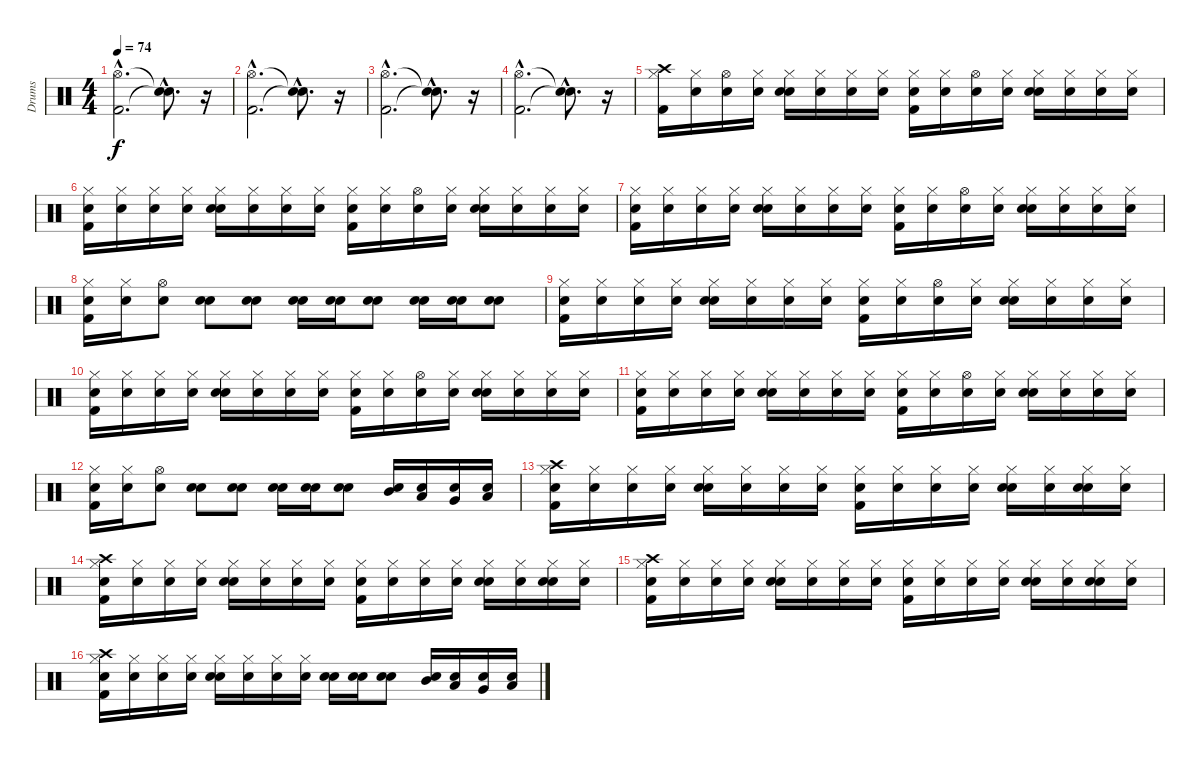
\track ("Drums" "Drums") {instrument percussion}
\staff {score}
\articulation defaults
\ts (4 4)
\tempo 74
\clef neutral
\ks c
("Kick (hit) 2"{hac} "Hi-Hat (open)"{hac}).2{d dy f} ("Snare (hit)"{hac t} "Snare (hit)"{hac t}).8{d} r.16 |
("Kick (hit) 2"{hac} "Hi-Hat (open)"{hac}).2{d} ("Snare (hit)"{hac t} "Snare (hit)"{hac t}).8{d} r.16 |
("Kick (hit) 2"{hac} "Hi-Hat (open)"{hac}).2{d} ("Snare (hit)"{hac t} "Snare (hit)"{hac t}).8{d} r.16 |
("Kick (hit) 2"{hac} "Hi-Hat (open)"{hac}).2{d} ("Snare (hit)"{hac t} "Snare (hit)"{hac t}).8{d} r.16 |
("Kick (hit) 2" "Hi-Hat (closed)" "Crash high (hit)").16 ("Snare (hit)" "Hi-Hat (closed)").16 ("Snare (hit)" "Hi-Hat (open)").16 ("Snare (hit)" "Hi-Hat (closed)").16 ("Snare (hit)" "Snare (hit) 2" "Hi-Hat (closed)").16 ("Snare (hit)" "Hi-Hat (closed)").16 ("Snare (hit)" "Hi-Hat (closed)").16 ("Snare (hit)" "Hi-Hat (closed)").16 ("Snare (hit)" "Kick (hit) 2" "Hi-Hat (closed)").16 ("Snare (hit)" "Hi-Hat (closed)").16 ("Snare (hit)" "Hi-Hat (open)").16 ("Snare (hit)" "Hi-Hat (closed)").16 ("Snare (hit)" "Snare (hit) 2" "Hi-Hat (closed)").16 ("Snare (hit)" "Hi-Hat (closed)").16 ("Snare (hit)" "Hi-Hat (closed)").16 ("Snare (hit)" "Hi-Hat (closed)").16 |
("Snare (hit)" "Kick (hit) 2" "Hi-Hat (closed)").16 ("Snare (hit)" "Hi-Hat (closed)").16 ("Snare (hit)" "Hi-Hat (closed)").16 ("Snare (hit)" "Hi-Hat (closed)").16 ("Snare (hit)" "Snare (hit) 2" "Hi-Hat (closed)").16 ("Snare (hit)" "Hi-Hat (closed)").16 ("Snare (hit)" "Hi-Hat (closed)").16 ("Snare (hit)" "Hi-Hat (closed)").16 ("Snare (hit)" "Kick (hit) 2" "Hi-Hat (closed)").16 ("Snare (hit)" "Hi-Hat (closed)").16 ("Snare (hit)" "Hi-Hat (open)").16 ("Snare (hit)" "Hi-Hat (closed)").16 ("Snare (hit)" "Snare (hit) 2" "Hi-Hat (closed)").16 ("Snare (hit)" "Hi-Hat (closed)").16 ("Snare (hit)" "Hi-Hat (closed)").16 ("Snare (hit)" "Hi-Hat (closed)").16 |
("Snare (hit)" "Kick (hit) 2" "Hi-Hat (closed)").16 ("Snare (hit)" "Hi-Hat (closed)").16 ("Snare (hit)" "Hi-Hat (closed)").16 ("Snare (hit)" "Hi-Hat (closed)").16 ("Snare (hit)" "Snare (hit) 2" "Hi-Hat (closed)").16 ("Snare (hit)" "Hi-Hat (closed)").16 ("Snare (hit)" "Hi-Hat (closed)").16 ("Snare (hit)" "Hi-Hat (closed)").16 ("Snare (hit)" "Kick (hit) 2" "Hi-Hat (closed)").16 ("Snare (hit)" "Hi-Hat (closed)").16 ("Snare (hit)" "Hi-Hat (open)").16 ("Snare (hit)" "Hi-Hat (closed)").16 ("Snare (hit)" "Snare (hit) 2" "Hi-Hat (closed)").16 ("Snare (hit)" "Hi-Hat (closed)").16 ("Snare (hit)" "Hi-Hat (closed)").16 ("Snare (hit)" "Hi-Hat (closed)").16 |
("Snare (hit)" "Kick (hit) 2" "Hi-Hat (closed)").16 ("Snare (hit)" "Hi-Hat (closed)").16 ("Snare (hit)" "Hi-Hat (open)").8 ("Snare (hit)" "Snare (hit) 2").8 ("Snare (hit)" "Snare (hit) 2").8 ("Snare (hit)" "Snare (hit) 2").16 ("Snare (hit)" "Snare (hit) 2").16 ("Snare (hit)" "Snare (hit) 2").8 ("Snare (hit)" "Snare (hit) 2").16 ("Snare (hit)" "Snare (hit) 2").16 ("Snare (hit)" "Snare (hit) 2").8 |
("Snare (hit)" "Kick (hit) 2" "Hi-Hat (closed)").16 ("Snare (hit)" "Hi-Hat (closed)").16 ("Snare (hit)" "Hi-Hat (closed)").16 ("Snare (hit)" "Hi-Hat (closed)").16 ("Snare (hit)" "Snare (hit) 2" "Hi-Hat (closed)").16 ("Snare (hit)" "Hi-Hat (closed)").16 ("Snare (hit)" "Hi-Hat (closed)").16 ("Snare (hit)" "Hi-Hat (closed)").16 ("Snare (hit)" "Kick (hit) 2" "Hi-Hat (closed)").16 ("Snare (hit)" "Hi-Hat (closed)").16 ("Snare (hit)" "Hi-Hat (open)").16 ("Snare (hit)" "Hi-Hat (closed)").16 ("Snare (hit)" "Snare (hit) 2" "Hi-Hat (closed)").16 ("Snare (hit)" "Hi-Hat (closed)").16 ("Snare (hit)" "Hi-Hat (closed)").16 ("Snare (hit)" "Hi-Hat (closed)").16 |
("Snare (hit)" "Kick (hit) 2" "Hi-Hat (closed)").16 ("Snare (hit)" "Hi-Hat (closed)").16 ("Snare (hit)" "Hi-Hat (closed)").16 ("Snare (hit)" "Hi-Hat (closed)").16 ("Snare (hit)" "Snare (hit) 2" "Hi-Hat (closed)").16 ("Snare (hit)" "Hi-Hat (closed)").16 ("Snare (hit)" "Hi-Hat (closed)").16 ("Snare (hit)" "Hi-Hat (closed)").16 ("Snare (hit)" "Kick (hit) 2" "Hi-Hat (closed)").16 ("Snare (hit)" "Hi-Hat (closed)").16 ("Snare (hit)" "Hi-Hat (open)").16 ("Snare (hit)" "Hi-Hat (closed)").16 ("Snare (hit)" "Snare (hit) 2" "Hi-Hat (closed)").16 ("Snare (hit)" "Hi-Hat (closed)").16 ("Snare (hit)" "Hi-Hat (closed)").16 ("Snare (hit)" "Hi-Hat (closed)").16 |
("Snare (hit)" "Kick (hit) 2" "Hi-Hat (closed)").16 ("Snare (hit)" "Hi-Hat (closed)").16 ("Snare (hit)" "Hi-Hat (closed)").16 ("Snare (hit)" "Hi-Hat (closed)").16 ("Snare (hit)" "Snare (hit) 2" "Hi-Hat (closed)").16 ("Snare (hit)" "Hi-Hat (closed)").16 ("Snare (hit)" "Hi-Hat (closed)").16 ("Snare (hit)" "Hi-Hat (closed)").16 ("Snare (hit)" "Kick (hit) 2" "Hi-Hat (closed)").16 ("Snare (hit)" "Hi-Hat (closed)").16 ("Snare (hit)" "Hi-Hat (open)").16 ("Snare (hit)" "Hi-Hat (closed)").16 ("Snare (hit)" "Snare (hit) 2" "Hi-Hat (closed)").16 ("Snare (hit)" "Hi-Hat (closed)").16 ("Snare (hit)" "Hi-Hat (closed)").16 ("Snare (hit)" "Hi-Hat (closed)").16 |
("Snare (hit)" "Kick (hit) 2" "Hi-Hat (closed)").16 ("Snare (hit)" "Hi-Hat (closed)").16 ("Snare (hit)" "Hi-Hat (open)").8 ("Snare (hit)" "Snare (hit) 2").8 ("Snare (hit)" "Snare (hit) 2").8 ("Snare (hit)" "Snare (hit) 2").16 ("Snare (hit)" "Snare (hit) 2").16 ("Snare (hit)" "Snare (hit) 2").8 ("Snare (hit)" "Mid Tom (hit)").16 ("Snare (hit)" "Low Tom (hit)").16 ("Snare (hit)" "Very Low Tom (hit)").16 ("Snare (hit)" "Low Floor Tom (hit)").16 |
("Snare (hit)" "Kick (hit) 2" "Hi-Hat (closed)" "Crash high (hit)").16 ("Snare (hit)" "Hi-Hat (closed)").16 ("Snare (hit)" "Hi-Hat (closed)").16 ("Snare (hit)" "Hi-Hat (closed)").16 ("Snare (hit)" "Snare (hit) 2" "Hi-Hat (closed)").16 ("Snare (hit)" "Hi-Hat (closed)").16 ("Snare (hit)" "Hi-Hat (closed)").16 ("Snare (hit)" "Hi-Hat (closed)").16 ("Snare (hit)" "Kick (hit) 2" "Hi-Hat (closed)").16 ("Snare (hit)" "Hi-Hat (closed)").16 ("Snare (hit)" "Hi-Hat (closed)").16 ("Snare (hit)" "Hi-Hat (closed)").16 ("Snare (hit)" "Snare (hit) 2" "Hi-Hat (closed)").16 ("Snare (hit)" "Hi-Hat (closed)").16 ("Snare (hit)" "Snare (hit) 2" "Hi-Hat (closed)").16 ("Snare (hit)" "Hi-Hat (closed)").16 |
("Snare (hit)" "Kick (hit) 2" "Hi-Hat (closed)" "Crash high (hit)").16 ("Snare (hit)" "Hi-Hat (closed)").16 ("Snare (hit)" "Hi-Hat (closed)").16 ("Snare (hit)" "Hi-Hat (closed)").16 ("Snare (hit)" "Snare (hit) 2" "Hi-Hat (closed)").16 ("Snare (hit)" "Hi-Hat (closed)").16 ("Snare (hit)" "Hi-Hat (closed)").16 ("Snare (hit)" "Hi-Hat (closed)").16 ("Snare (hit)" "Kick (hit) 2" "Hi-Hat (closed)").16 ("Snare (hit)" "Hi-Hat (closed)").16 ("Snare (hit)" "Hi-Hat (closed)").16 ("Snare (hit)" "Hi-Hat (closed)").16 ("Snare (hit)" "Snare (hit) 2" "Hi-Hat (closed)").16 ("Snare (hit)" "Hi-Hat (closed)").16 ("Snare (hit)" "Snare (hit) 2" "Hi-Hat (closed)").16 ("Snare (hit)" "Hi-Hat (closed)").16 |
("Snare (hit)" "Kick (hit) 2" "Hi-Hat (closed)" "Crash high (hit)").16 ("Snare (hit)" "Hi-Hat (closed)").16 ("Snare (hit)" "Hi-Hat (closed)").16 ("Snare (hit)" "Hi-Hat (closed)").16 ("Snare (hit)" "Snare (hit) 2" "Hi-Hat (closed)").16 ("Snare (hit)" "Hi-Hat (closed)").16 ("Snare (hit)" "Hi-Hat (closed)").16 ("Snare (hit)" "Hi-Hat (closed)").16 ("Snare (hit)" "Kick (hit) 2" "Hi-Hat (closed)").16 ("Snare (hit)" "Hi-Hat (closed)").16 ("Snare (hit)" "Hi-Hat (closed)").16 ("Snare (hit)" "Hi-Hat (closed)").16 ("Snare (hit)" "Snare (hit) 2" "Hi-Hat (closed)").16 ("Snare (hit)" "Hi-Hat (closed)").16 ("Snare (hit)" "Snare (hit) 2" "Hi-Hat (closed)").16 ("Snare (hit)" "Hi-Hat (closed)").16 |
("Snare (hit)" "Kick (hit) 2" "Hi-Hat (closed)" "Crash high (hit)").16 ("Snare (hit)" "Hi-Hat (closed)").16 ("Snare (hit)" "Hi-Hat (closed)").16 ("Snare (hit)" "Hi-Hat (closed)").16 ("Snare (hit)" "Snare (hit) 2" "Hi-Hat (closed)").16 ("Snare (hit)" "Hi-Hat (closed)").16 ("Snare (hit)" "Hi-Hat (closed)").16 ("Snare (hit)" "Hi-Hat (closed)").16 ("Snare (hit)" "Snare (hit) 2").16 ("Snare (hit)" "Snare (hit) 2").16 ("Snare (hit)" "Snare (hit) 2").8 ("Snare (hit)" "Mid Tom (hit)").16 ("Snare (hit)" "Low Tom (hit)").16 ("Snare (hit)" "Very Low Tom (hit)").16 ("Snare (hit)" "Low Floor Tom (hit)").16
